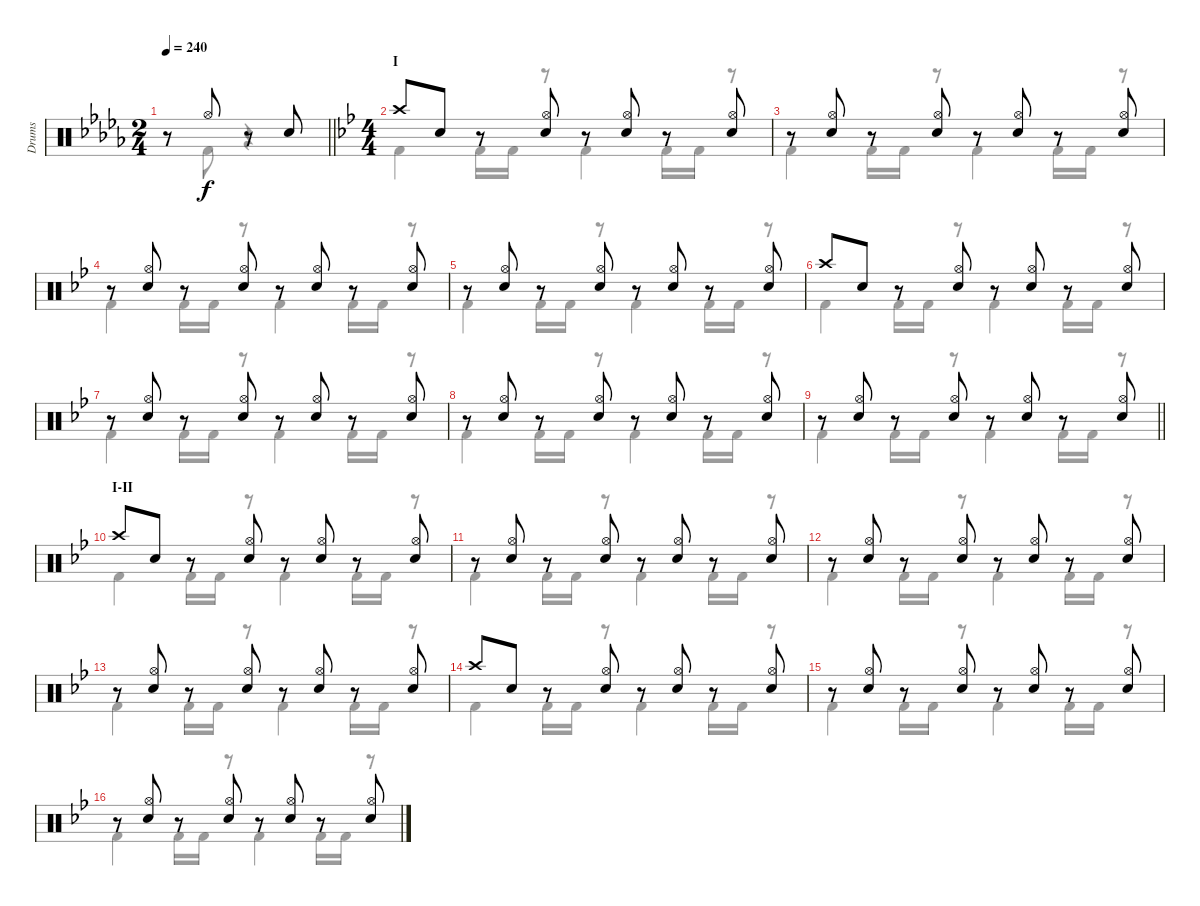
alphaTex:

\track ("Drums" "Drums") {instrument percussion}
\staff {score}
\articulation defaults
\voice
\ts (2 4)
\tempo 240
\clef neutral
\barLineRight lightlight
\ks db
r.8{dy f} "Hi-Hat (open)".8 r.8 "Snare (hit) 2".8 |
\ts (4 4)
\section ("" "I")
\ks bb "Crash high (hit)".8 "Snare (hit) 2".8
r.8 ("Hi-Hat (open)" "Snare (hit) 2").8 r.8 ("Hi-Hat (open)" "Snare (hit) 2").8 r.8 ("Hi-Hat (open)" "Snare (hit) 2").8 |
r.8 ("Hi-Hat (open)" "Snare (hit) 2").8 r.8 ("Hi-Hat (open)" "Snare (hit) 2").8 r.8 ("Hi-Hat (open)" "Snare (hit) 2").8 r.8 ("Hi-Hat (open)" "Snare (hit) 2").8 |
r.8 ("Hi-Hat (open)" "Snare (hit) 2").8 r.8 ("Hi-Hat (open)" "Snare (hit) 2").8 r.8 ("Hi-Hat (open)" "Snare (hit) 2").8 r.8 ("Hi-Hat (open)" "Snare (hit) 2").8 |
r.8 ("Hi-Hat (open)" "Snare (hit) 2").8 r.8 ("Hi-Hat (open)" "Snare (hit) 2").8 r.8 ("Hi-Hat (open)" "Snare (hit) 2").8 r.8 ("Hi-Hat (open)" "Snare (hit) 2").8 |
"Crash high (hit)".8 "Snare (hit) 2".8 r.8 ("Hi-Hat (open)" "Snare (hit) 2").8 r.8 ("Hi-Hat (open)" "Snare (hit) 2").8 r.8 ("Hi-Hat (open)" "Snare (hit) 2").8 |
r.8 ("Hi-Hat (open)" "Snare (hit) 2").8 r.8 ("Hi-Hat (open)" "Snare (hit) 2").8 r.8 ("Hi-Hat (open)" "Snare (hit) 2").8 r.8 ("Hi-Hat (open)" "Snare (hit) 2").8 |
r.8 ("Hi-Hat (open)" "Snare (hit) 2").8 r.8 ("Hi-Hat (open)" "Snare (hit) 2").8 r.8 ("Hi-Hat (open)" "Snare (hit) 2").8 r.8 ("Hi-Hat (open)" "Snare (hit) 2").8 |
\barLineRight lightlight
r.8 ("Hi-Hat (open)" "Snare (hit) 2").8 r.8 ("Hi-Hat (open)" "Snare (hit) 2").8 r.8 ("Hi-Hat (open)" "Snare (hit) 2").8 r.8 ("Hi-Hat (open)" "Snare (hit) 2").8 |
\section ("" "I-II")
"Crash high (hit)".8 "Snare (hit) 2".8 r.8 ("Hi-Hat (open)" "Snare (hit) 2").8 r.8 ("Hi-Hat (open)" "Snare (hit) 2").8 r.8 ("Hi-Hat (open)" "Snare (hit) 2").8 |
r.8 ("Hi-Hat (open)" "Snare (hit) 2").8 r.8 ("Hi-Hat (open)" "Snare (hit) 2").8 r.8 ("Hi-Hat (open)" "Snare (hit) 2").8 r.8 ("Hi-Hat (open)" "Snare (hit) 2").8 |
r.8 ("Hi-Hat (open)" "Snare (hit) 2").8 r.8 ("Hi-Hat (open)" "Snare (hit) 2").8 r.8 ("Hi-Hat (open)" "Snare (hit) 2").8 r.8 ("Hi-Hat (open)" "Snare (hit) 2").8 |
r.8 ("Hi-Hat (open)" "Snare (hit) 2").8 r.8 ("Hi-Hat (open)" "Snare (hit) 2").8 r.8 ("Hi-Hat (open)" "Snare (hit) 2").8 r.8 ("Hi-Hat (open)" "Snare (hit) 2").8 |
"Crash high (hit)".8 "Snare (hit) 2".8 r.8 ("Hi-Hat (open)" "Snare (hit) 2").8 r.8 ("Hi-Hat (open)" "Snare (hit) 2").8 r.8 ("Hi-Hat (open)" "Snare (hit) 2").8 |
r.8 ("Hi-Hat (open)" "Snare (hit) 2").8 r.8 ("Hi-Hat (open)" "Snare (hit) 2").8 r.8 ("Hi-Hat (open)" "Snare (hit) 2").8 r.8 ("Hi-Hat (open)" "Snare (hit) 2").8 |
r.8 ("Hi-Hat (open)" "Snare (hit) 2").8 r.8 ("Hi-Hat (open)" "Snare (hit) 2").8 r.8 ("Hi-Hat (open)" "Snare (hit) 2").8 r.8 ("Hi-Hat (open)" "Snare (hit) 2").8
\voice
\clef neutral
\ottava regular
\simile none
\barLineRight lightlight
\ks db
r.8{dy f} "Kick (hit) 2".8 r.4 |
\ks bb "Kick (hit) 2".4 "Kick (hit) 2".16 "Kick (hit) 2".16
r.8 "Kick (hit) 2".4 "Kick (hit) 2".16 "Kick (hit) 2".16 r.8 |
"Kick (hit) 2".4 "Kick (hit) 2".16 "Kick (hit) 2".16 r.8 "Kick (hit) 2".4 "Kick (hit) 2".16 "Kick (hit) 2".16 r.8 |
"Kick (hit) 2".4 "Kick (hit) 2".16 "Kick (hit) 2".16 r.8 "Kick (hit) 2".4 "Kick (hit) 2".16 "Kick (hit) 2".16 r.8 |
"Kick (hit) 2".4 "Kick (hit) 2".16 "Kick (hit) 2".16 r.8 "Kick (hit) 2".4 "Kick (hit) 2".16 "Kick (hit) 2".16 r.8 |
"Kick (hit) 2".4 "Kick (hit) 2".16 "Kick (hit) 2".16 r.8 "Kick (hit) 2".4 "Kick (hit) 2".16 "Kick (hit) 2".16 r.8 |
"Kick (hit) 2".4 "Kick (hit) 2".16 "Kick (hit) 2".16 r.8 "Kick (hit) 2".4 "Kick (hit) 2".16 "Kick (hit) 2".16 r.8 |
"Kick (hit) 2".4 "Kick (hit) 2".16 "Kick (hit) 2".16 r.8 "Kick (hit) 2".4 "Kick (hit) 2".16 "Kick (hit) 2".16 r.8 |
\barLineRight lightlight "Kick (hit) 2".4 "Kick (hit) 2".16 "Kick (hit) 2".16
r.8 "Kick (hit) 2".4 "Kick (hit) 2".16 "Kick (hit) 2".16 r.8 |
"Kick (hit) 2".4 "Kick (hit) 2".16 "Kick (hit) 2".16 r.8 "Kick (hit) 2".4 "Kick (hit) 2".16 "Kick (hit) 2".16 r.8 |
"Kick (hit) 2".4 "Kick (hit) 2".16 "Kick (hit) 2".16 r.8 "Kick (hit) 2".4 "Kick (hit) 2".16 "Kick (hit) 2".16 r.8 |
"Kick (hit) 2".4 "Kick (hit) 2".16 "Kick (hit) 2".16 r.8 "Kick (hit) 2".4 "Kick (hit) 2".16 "Kick (hit) 2".16 r.8 |
"Kick (hit) 2".4 "Kick (hit) 2".16 "Kick (hit) 2".16 r.8 "Kick (hit) 2".4 "Kick (hit) 2".16 "Kick (hit) 2".16 r.8 |
"Kick (hit) 2".4 "Kick (hit) 2".16 "Kick (hit) 2".16 r.8 "Kick (hit) 2".4 "Kick (hit) 2".16 "Kick (hit) 2".16 r.8 |
"Kick (hit) 2".4 "Kick (hit) 2".16 "Kick (hit) 2".16 r.8 "Kick (hit) 2".4 "Kick (hit) 2".16 "Kick (hit) 2".16 r.8 |
"Kick (hit) 2".4 "Kick (hit) 2".16 "Kick (hit) 2".16 r.8 "Kick (hit) 2".4 "Kick (hit) 2".16 "Kick (hit) 2".16 r.8
